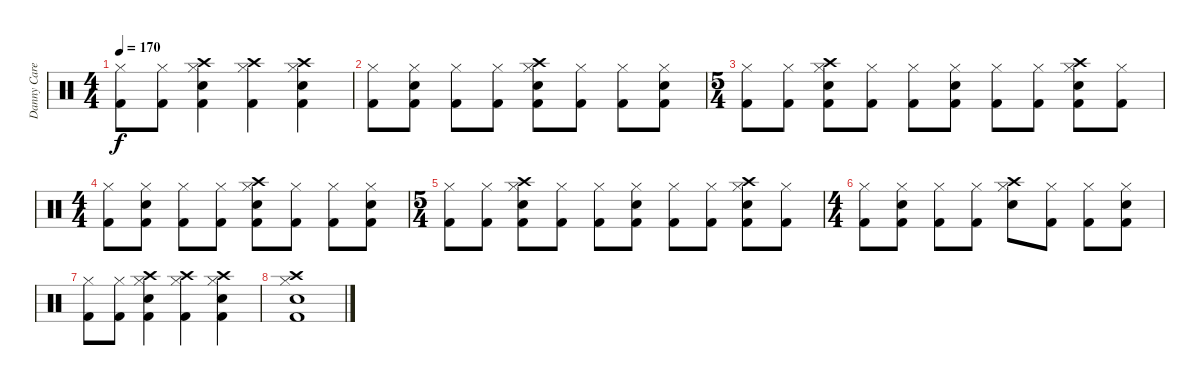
\track ("Danny Carey" "Danny Care") {instrument percussion}
\staff {score}
\articulation defaults
\ts (4 4)
\tempo 170
\clef neutral
\ks c
("Hi-Hat (closed)" "Kick (hit) 2").8{dy f} ("Hi-Hat (closed)" "Kick (hit) 2").8 ("Crash high (hit)" "Hi-Hat (closed)" "Snare (hit) 2" "Kick (hit) 2").4 ("Crash high (hit)" "Hi-Hat (closed)" "Kick (hit) 2").4 ("Crash high (hit)" "Hi-Hat (closed)" "Snare (hit) 2" "Kick (hit) 2").4 |
("Hi-Hat (closed)" "Kick (hit) 2").8 ("Hi-Hat (closed)" "Snare (hit) 2" "Kick (hit) 2").8 ("Hi-Hat (closed)" "Kick (hit) 2").8 ("Hi-Hat (closed)" "Kick (hit) 2").8 ("Crash high (hit)" "Hi-Hat (closed)" "Snare (hit) 2" "Kick (hit) 2").8 ("Hi-Hat (closed)" "Kick (hit) 2").8 ("Hi-Hat (closed)" "Kick (hit) 2").8 ("Hi-Hat (closed)" "Snare (hit) 2" "Kick (hit) 2").8 |
\ts (5 4)
("Hi-Hat (closed)" "Kick (hit) 2").8 ("Hi-Hat (closed)" "Kick (hit) 2").8 ("Crash high (hit)" "Hi-Hat (closed)" "Snare (hit) 2" "Kick (hit) 2").8 ("Hi-Hat (closed)" "Kick (hit) 2").8 ("Hi-Hat (closed)" "Kick (hit) 2").8 ("Hi-Hat (closed)" "Snare (hit) 2" "Kick (hit) 2").8 ("Hi-Hat (closed)" "Kick (hit) 2").8 ("Hi-Hat (closed)" "Kick (hit) 2").8 ("Crash high (hit)" "Hi-Hat (closed)" "Snare (hit) 2" "Kick (hit) 2").8 ("Hi-Hat (closed)" "Kick (hit) 2").8 |
\ts (4 4)
("Hi-Hat (closed)" "Kick (hit) 2").8 ("Hi-Hat (closed)" "Snare (hit) 2" "Kick (hit) 2").8 ("Hi-Hat (closed)" "Kick (hit) 2").8 ("Hi-Hat (closed)" "Kick (hit) 2").8 ("Crash high (hit)" "Hi-Hat (closed)" "Snare (hit) 2" "Kick (hit) 2").8 ("Hi-Hat (closed)" "Kick (hit) 2").8 ("Hi-Hat (closed)" "Kick (hit) 2").8 ("Hi-Hat (closed)" "Snare (hit) 2" "Kick (hit) 2").8 |
\ts (5 4)
("Hi-Hat (closed)" "Kick (hit) 2").8 ("Hi-Hat (closed)" "Kick (hit) 2").8 ("Crash high (hit)" "Hi-Hat (closed)" "Snare (hit) 2" "Kick (hit) 2").8 ("Hi-Hat (closed)" "Kick (hit) 2").8 ("Hi-Hat (closed)" "Kick (hit) 2").8 ("Hi-Hat (closed)" "Snare (hit) 2" "Kick (hit) 2").8 ("Hi-Hat (closed)" "Kick (hit) 2").8 ("Hi-Hat (closed)" "Kick (hit) 2").8 ("Crash high (hit)" "Hi-Hat (closed)" "Snare (hit) 2" "Kick (hit) 2").8 ("Hi-Hat (closed)" "Kick (hit) 2").8 |
\ts (4 4)
("Hi-Hat (closed)" "Kick (hit) 2").8 ("Hi-Hat (closed)" "Snare (hit) 2" "Kick (hit) 2").8 ("Hi-Hat (closed)" "Kick (hit) 2").8 ("Hi-Hat (closed)" "Kick (hit) 2").8 ("Crash high (hit)" "Hi-Hat (closed)" "Snare (hit) 2").8 ("Hi-Hat (closed)" "Kick (hit) 2").8 ("Hi-Hat (closed)" "Kick (hit) 2").8 ("Hi-Hat (closed)" "Snare (hit) 2" "Kick (hit) 2").8 |
("Hi-Hat (closed)" "Kick (hit) 2").8 ("Hi-Hat (closed)" "Kick (hit) 2").8 ("Crash high (hit)" "Hi-Hat (closed)" "Snare (hit) 2" "Kick (hit) 2").4 ("Crash high (hit)" "Hi-Hat (closed)" "Kick (hit) 2").4 ("Crash high (hit)" "Hi-Hat (closed)" "Snare (hit) 2" "Kick (hit) 2").4 |
("Crash high (hit)" "Hi-Hat (closed)" "Snare (hit) 2" "Kick (hit) 2").1
